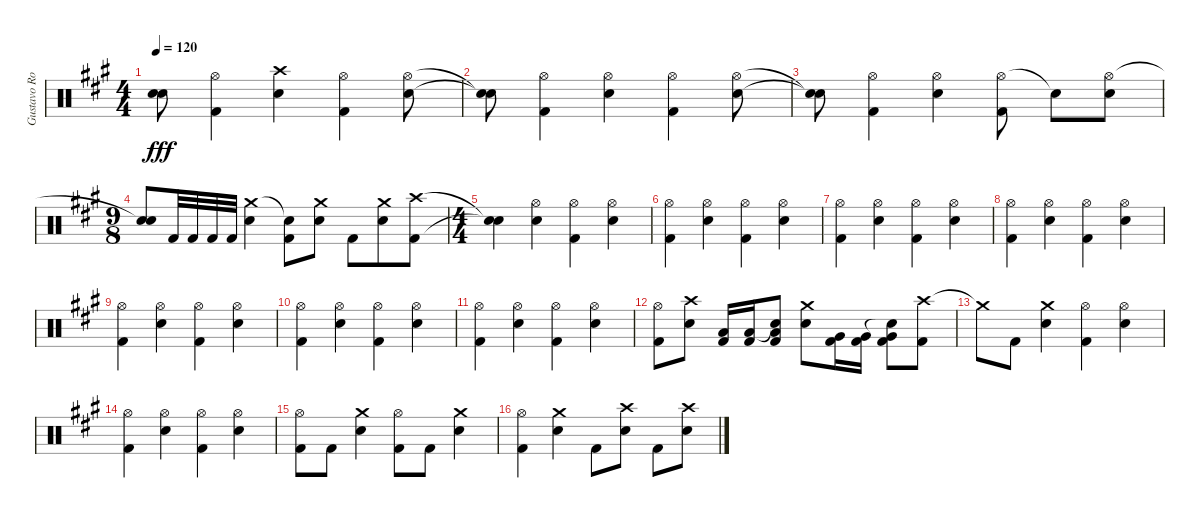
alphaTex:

\track ("Gustavo Rowek" "Gustavo Ro") {instrument percussion}
\staff {score}
\articulation defaults
\ts (4 4)
\tempo 120
\clef neutral
\ks a
("Snare (hit)"{t} "Snare (hit)"{t}).8{dy fff} ("Hi-Hat (open)" "Kick (hit) 2").4 ("Crash high (hit)" "Snare (hit) 2").4 ("Hi-Hat (open)" "Kick (hit) 2").4 ("Hi-Hat (open)" "Snare (hit) 2").8 |
("Snare (hit)"{t} "Snare (hit)"{t}).8 ("Hi-Hat (open)" "Kick (hit) 2").4 ("Hi-Hat (open)" "Snare (hit) 2").4 ("Hi-Hat (open)" "Kick (hit) 2").4 ("Hi-Hat (open)" "Snare (hit) 2").8 |
("Snare (hit)"{t} "Snare (hit)"{t}).8 ("Hi-Hat (open)" "Kick (hit) 2").4 ("Hi-Hat (open)" "Snare (hit) 2").4 ("Hi-Hat (open)" "Kick (hit) 2").8 "Snare (hit)"{t}.8 ("Hi-Hat (open)" "Snare (hit) 2").8 |
\ts (9 8)
("Snare (hit)"{t} "Snare (hit) 2").8 "Kick (hit) 2".32 "Kick (hit) 2".32 "Kick (hit) 2".32 "Kick (hit) 2".32 ("Crash medium (hit)" "Snare (hit) 2").4 ("Snare (hit)"{t} "Kick (hit) 2").8 ("Crash medium (hit)" "Snare (hit) 2").8 "Kick (hit) 2".8 ("Crash medium (hit)" "Snare (hit) 2").8 ("Crash high (hit)" "Kick (hit) 2").8 |
\ts (4 4)
("Snare (hit)"{t} "Snare (hit)"{t}).4 ("Hi-Hat (open)" "Snare (hit) 2").4 ("Hi-Hat (open)" "Kick (hit) 2").4 ("Hi-Hat (open)" "Snare (hit) 2").4 |
("Hi-Hat (open)" "Kick (hit) 2").4 ("Hi-Hat (open)" "Snare (hit) 2").4 ("Hi-Hat (open)" "Kick (hit) 2").4 ("Hi-Hat (open)" "Snare (hit) 2").4 |
("Hi-Hat (open)" "Kick (hit) 2").4 ("Hi-Hat (open)" "Snare (hit) 2").4 ("Hi-Hat (open)" "Kick (hit) 2").4 ("Hi-Hat (open)" "Snare (hit) 2").4 |
("Hi-Hat (open)" "Kick (hit) 2").4 ("Hi-Hat (open)" "Snare (hit) 2").4 ("Hi-Hat (open)" "Kick (hit) 2").4 ("Hi-Hat (open)" "Snare (hit) 2").4 |
("Hi-Hat (open)" "Kick (hit) 2").4 ("Hi-Hat (open)" "Snare (hit) 2").4 ("Hi-Hat (open)" "Kick (hit) 2").4 ("Hi-Hat (open)" "Snare (hit) 2").4 |
("Hi-Hat (open)" "Kick (hit) 2").4 ("Hi-Hat (open)" "Snare (hit) 2").4 ("Hi-Hat (open)" "Kick (hit) 2").4 ("Hi-Hat (open)" "Snare (hit) 2").4 |
("Hi-Hat (open)" "Kick (hit) 2").4 ("Hi-Hat (open)" "Snare (hit) 2").4 ("Hi-Hat (open)" "Kick (hit) 2").4 ("Hi-Hat (open)" "Snare (hit) 2").4 |
("Hi-Hat (open)" "Kick (hit) 2").8 ("Crash high (hit)" "Snare (hit) 2").8 ("Low Tom (hit)" "Kick (hit) 2").16 ("Low Tom (hit)" "Kick (hit) 2").16 ("Snare (hit)"{t} "Low Tom (hit)" "Kick (hit) 2").8 ("Crash medium (hit)" "Snare (hit) 2").8 ("Very Low Tom (hit)" "Kick (hit) 2").16 ("Very Low Tom (hit)" "Kick (hit) 2").16 ("Snare (hit)"{t} "Very Low Tom (hit)" "Kick (hit) 2").8 ("Crash high (hit)" "Kick (hit) 2").8 |
"Crash medium (hit)"{t}.8 "Kick (hit) 2".8 ("Crash medium (hit)" "Snare (hit) 2").4 ("Hi-Hat (open)" "Kick (hit) 2").4 ("Hi-Hat (open)" "Snare (hit) 2").4 |
("Hi-Hat (open)" "Kick (hit) 2").4 ("Hi-Hat (open)" "Snare (hit) 2").4 ("Hi-Hat (open)" "Kick (hit) 2").4 ("Hi-Hat (open)" "Snare (hit) 2").4 |
("Hi-Hat (open)" "Kick (hit) 2").8 "Kick (hit) 2".8 ("Crash medium (hit)" "Snare (hit) 2").4 ("Hi-Hat (open)" "Kick (hit) 2").8 "Kick (hit) 2".8 ("Crash medium (hit)" "Snare (hit) 2").4 |
("Hi-Hat (open)" "Kick (hit) 2").4 ("Crash medium (hit)" "Snare (hit) 2").4 "Kick (hit) 2".8 ("Crash high (hit)" "Snare (hit) 2").8 "Kick (hit) 2".8 ("Crash high (hit)" "Snare (hit) 2").8
